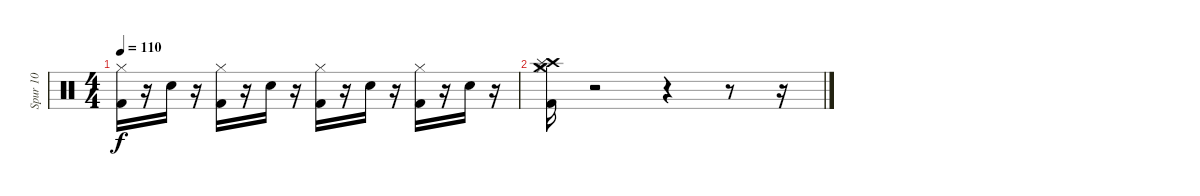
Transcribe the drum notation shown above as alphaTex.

\track ("Spur 10" "Spur 10") {instrument percussion}
\staff {score}
\articulation defaults
\ts (4 4)
\tempo 110
\clef neutral
\ks c
("Kick (hit) 2" "Hi-Hat (closed)").16{dy f} r.16 "Snare (hit) 2".16 r.16 ("Kick (hit) 2" "Hi-Hat (closed)").16 r.16 "Snare (hit) 2".16 r.16 ("Kick (hit) 2" "Hi-Hat (closed)").16 r.16 "Snare (hit) 2".16 r.16 ("Kick (hit) 2" "Hi-Hat (closed)").16 r.16 "Snare (hit) 2".16 r.16 |
("Hi-Hat (closed)" "Crash high (hit)" "Splash (hit)" "Crash medium (hit)" "Kick (hit) 2").16 r.2 r.4 r.8 r.16
